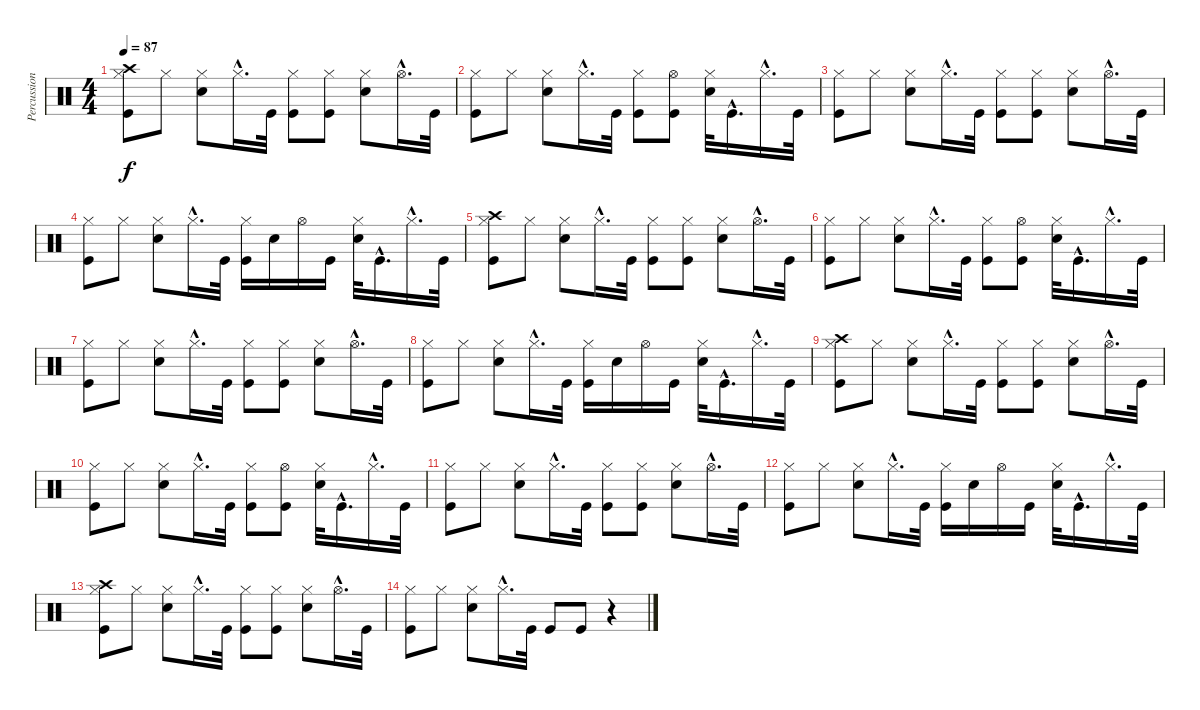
\track ("Percussion" "Percussion") {instrument percussion}
\staff {score}
\articulation defaults
\ts (4 4)
\tempo 87
\clef neutral
\ks c
("Crash high (hit)" "Hi-Hat (closed)" "Kick (hit)").8{dy f} "Hi-Hat (closed)".8 ("Hi-Hat (closed)" "Electric Snare (hit)").8 "Hi-Hat (closed)"{hac}.16{d} "Kick (hit)".32 ("Hi-Hat (closed)" "Kick (hit)").8 ("Hi-Hat (closed)" "Kick (hit)").8 ("Hi-Hat (closed)" "Electric Snare (hit)").8 "Hi-Hat (open)"{hac}.16{d} "Kick (hit)".32 |
("Hi-Hat (closed)" "Kick (hit)").8 "Hi-Hat (closed)".8 ("Hi-Hat (closed)" "Electric Snare (hit)").8 "Hi-Hat (closed)"{hac}.16{d} "Kick (hit)".32 ("Hi-Hat (closed)" "Kick (hit)").8 ("Hi-Hat (open)" "Kick (hit)").8 ("Hi-Hat (closed)" "Electric Snare (hit)").32 "Kick (hit)"{hac}.16{d} "Hi-Hat (closed)"{hac}.16{d} "Kick (hit)".32 |
("Hi-Hat (closed)" "Kick (hit)").8 "Hi-Hat (closed)".8 ("Hi-Hat (closed)" "Electric Snare (hit)").8 "Hi-Hat (closed)"{hac}.16{d} "Kick (hit)".32 ("Hi-Hat (closed)" "Kick (hit)").8 ("Hi-Hat (closed)" "Kick (hit)").8 ("Hi-Hat (closed)" "Electric Snare (hit)").8 "Hi-Hat (open)"{hac}.16{d} "Kick (hit)".32 |
("Hi-Hat (closed)" "Kick (hit)").8 "Hi-Hat (closed)".8 ("Hi-Hat (closed)" "Electric Snare (hit)").8 "Hi-Hat (closed)"{hac}.16{d} "Kick (hit)".32 ("Hi-Hat (closed)" "Kick (hit)").16 "Electric Snare (hit)".16 "Hi-Hat (open)".16 "Kick (hit)".16 ("Hi-Hat (closed)" "Electric Snare (hit)").32 "Kick (hit)"{hac}.16{d} "Hi-Hat (closed)"{hac}.16{d} "Kick (hit)".32 |
("Crash high (hit)" "Hi-Hat (closed)" "Kick (hit)").8 "Hi-Hat (closed)".8 ("Hi-Hat (closed)" "Electric Snare (hit)").8 "Hi-Hat (closed)"{hac}.16{d} "Kick (hit)".32 ("Hi-Hat (closed)" "Kick (hit)").8 ("Hi-Hat (closed)" "Kick (hit)").8 ("Hi-Hat (closed)" "Electric Snare (hit)").8 "Hi-Hat (open)"{hac}.16{d} "Kick (hit)".32 |
("Hi-Hat (closed)" "Kick (hit)").8 "Hi-Hat (closed)".8 ("Hi-Hat (closed)" "Electric Snare (hit)").8 "Hi-Hat (closed)"{hac}.16{d} "Kick (hit)".32 ("Hi-Hat (closed)" "Kick (hit)").8 ("Hi-Hat (open)" "Kick (hit)").8 ("Hi-Hat (closed)" "Electric Snare (hit)").32 "Kick (hit)"{hac}.16{d} "Hi-Hat (closed)"{hac}.16{d} "Kick (hit)".32 |
("Hi-Hat (closed)" "Kick (hit)").8 "Hi-Hat (closed)".8 ("Hi-Hat (closed)" "Electric Snare (hit)").8 "Hi-Hat (closed)"{hac}.16{d} "Kick (hit)".32 ("Hi-Hat (closed)" "Kick (hit)").8 ("Hi-Hat (closed)" "Kick (hit)").8 ("Hi-Hat (closed)" "Electric Snare (hit)").8 "Hi-Hat (open)"{hac}.16{d} "Kick (hit)".32 |
("Hi-Hat (closed)" "Kick (hit)").8 "Hi-Hat (closed)".8 ("Hi-Hat (closed)" "Electric Snare (hit)").8 "Hi-Hat (closed)"{hac}.16{d} "Kick (hit)".32 ("Hi-Hat (closed)" "Kick (hit)").16 "Electric Snare (hit)".16 "Hi-Hat (open)".16 "Kick (hit)".16 ("Hi-Hat (closed)" "Electric Snare (hit)").32 "Kick (hit)"{hac}.16{d} "Hi-Hat (closed)"{hac}.16{d} "Kick (hit)".32 |
("Crash high (hit)" "Hi-Hat (closed)" "Kick (hit)").8 "Hi-Hat (closed)".8 ("Hi-Hat (closed)" "Electric Snare (hit)").8 "Hi-Hat (closed)"{hac}.16{d} "Kick (hit)".32 ("Hi-Hat (closed)" "Kick (hit)").8 ("Hi-Hat (closed)" "Kick (hit)").8 ("Hi-Hat (closed)" "Electric Snare (hit)").8 "Hi-Hat (open)"{hac}.16{d} "Kick (hit)".32 |
("Hi-Hat (closed)" "Kick (hit)").8 "Hi-Hat (closed)".8 ("Hi-Hat (closed)" "Electric Snare (hit)").8 "Hi-Hat (closed)"{hac}.16{d} "Kick (hit)".32 ("Hi-Hat (closed)" "Kick (hit)").8 ("Hi-Hat (open)" "Kick (hit)").8 ("Hi-Hat (closed)" "Electric Snare (hit)").32 "Kick (hit)"{hac}.16{d} "Hi-Hat (closed)"{hac}.16{d} "Kick (hit)".32 |
("Hi-Hat (closed)" "Kick (hit)").8 "Hi-Hat (closed)".8 ("Hi-Hat (closed)" "Electric Snare (hit)").8 "Hi-Hat (closed)"{hac}.16{d} "Kick (hit)".32 ("Hi-Hat (closed)" "Kick (hit)").8 ("Hi-Hat (closed)" "Kick (hit)").8 ("Hi-Hat (closed)" "Electric Snare (hit)").8 "Hi-Hat (open)"{hac}.16{d} "Kick (hit)".32 |
("Hi-Hat (closed)" "Kick (hit)").8 "Hi-Hat (closed)".8 ("Hi-Hat (closed)" "Electric Snare (hit)").8 "Hi-Hat (closed)"{hac}.16{d} "Kick (hit)".32 ("Hi-Hat (closed)" "Kick (hit)").16 "Electric Snare (hit)".16 "Hi-Hat (open)".16 "Kick (hit)".16 ("Hi-Hat (closed)" "Electric Snare (hit)").32 "Kick (hit)"{hac}.16{d} "Hi-Hat (closed)"{hac}.16{d} "Kick (hit)".32 |
("Crash high (hit)" "Hi-Hat (closed)" "Kick (hit)").8 "Hi-Hat (closed)".8 ("Hi-Hat (closed)" "Electric Snare (hit)").8 "Hi-Hat (closed)"{hac}.16{d} "Kick (hit)".32 ("Hi-Hat (closed)" "Kick (hit)").8 ("Hi-Hat (closed)" "Kick (hit)").8 ("Hi-Hat (closed)" "Electric Snare (hit)").8 "Hi-Hat (open)"{hac}.16{d} "Kick (hit)".32 |
("Hi-Hat (closed)" "Kick (hit)").8 "Hi-Hat (closed)".8 ("Hi-Hat (closed)" "Electric Snare (hit)").8 "Hi-Hat (closed)"{hac}.16{d} "Kick (hit)".32 "Kick (hit)".8 "Kick (hit)".8 r.4
